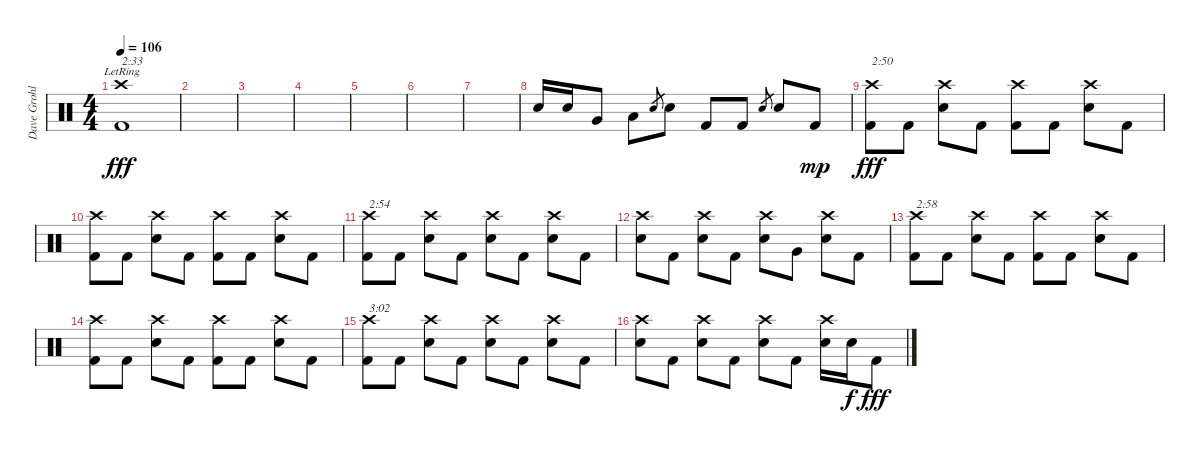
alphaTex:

\track ("Dave Grohl" "Dave Grohl") {instrument percussion}
\staff {score}
\articulation defaults
\ts (4 4)
\tempo 106
\clef neutral
\ks c
("Crash high (hit)"{lr} "Kick (hit) 2").1{txt "2:33" dy fff} |
|
|
|
|
|
|
"Snare (hit) 2".16 "Snare (hit) 2".16 "Very Low Tom (hit)".8 "Low Floor Tom (hit)".8 "Snare (hit) 2".8{gr} "Snare (hit) 2".8 "Kick (hit) 2".8 "Kick (hit) 2".8 "Snare (hit) 2".8{gr} "Snare (hit) 2".8 "Kick (hit) 2".8{dy mp} |
("Crash high (hit)" "Kick (hit) 2").8{txt "2:50" dy fff} "Kick (hit) 2".8 ("Crash high (hit)" "Snare (hit) 2").8 "Kick (hit) 2".8 ("Crash high (hit)" "Kick (hit) 2").8 "Kick (hit) 2".8 ("Crash high (hit)" "Snare (hit) 2").8 "Kick (hit) 2".8 |
("Crash high (hit)" "Kick (hit) 2").8 "Kick (hit) 2".8 ("Crash high (hit)" "Snare (hit) 2").8 "Kick (hit) 2".8 ("Crash high (hit)" "Kick (hit) 2").8 "Kick (hit) 2".8 ("Crash high (hit)" "Snare (hit) 2").8 "Kick (hit) 2".8 |
("Crash high (hit)" "Kick (hit) 2").8{txt "2:54"} "Kick (hit) 2".8 ("Crash high (hit)" "Snare (hit) 2").8 "Kick (hit) 2".8 ("Crash high (hit)" "Snare (hit) 2").8 "Kick (hit) 2".8 ("Crash high (hit)" "Snare (hit) 2").8 "Kick (hit) 2".8 |
("Crash high (hit)" "Snare (hit) 2").8 "Kick (hit) 2".8 ("Crash high (hit)" "Snare (hit) 2").8 "Kick (hit) 2".8 ("Crash high (hit)" "Snare (hit) 2").8 "Very Low Tom (hit)".8 ("Crash high (hit)" "Snare (hit) 2").8 "Kick (hit) 2".8 |
("Crash high (hit)" "Kick (hit) 2").8{txt "2:58"} "Kick (hit) 2".8 ("Crash high (hit)" "Snare (hit) 2").8 "Kick (hit) 2".8 ("Crash high (hit)" "Kick (hit) 2").8 "Kick (hit) 2".8 ("Crash high (hit)" "Snare (hit) 2").8 "Kick (hit) 2".8 |
("Crash high (hit)" "Kick (hit) 2").8 "Kick (hit) 2".8 ("Crash high (hit)" "Snare (hit) 2").8 "Kick (hit) 2".8 ("Crash high (hit)" "Kick (hit) 2").8 "Kick (hit) 2".8 ("Crash high (hit)" "Snare (hit) 2").8 "Kick (hit) 2".8 |
("Crash high (hit)" "Kick (hit) 2").8{txt "3:02"} "Kick (hit) 2".8 ("Crash high (hit)" "Snare (hit) 2").8 "Kick (hit) 2".8 ("Crash high (hit)" "Snare (hit) 2").8 "Kick (hit) 2".8 ("Crash high (hit)" "Snare (hit) 2").8 "Kick (hit) 2".8 |
("Crash high (hit)" "Snare (hit) 2").8 "Kick (hit) 2".8 ("Crash high (hit)" "Snare (hit) 2").8 "Kick (hit) 2".8 ("Crash high (hit)" "Snare (hit) 2").8 "Kick (hit) 2".8 ("Crash high (hit)" "Snare (hit) 2").16 "Snare (hit) 2".16{dy f} "Kick (hit) 2".8{dy fff}
